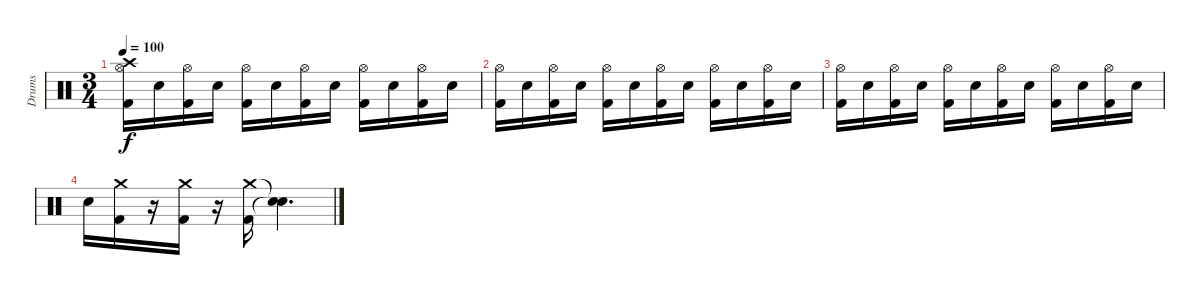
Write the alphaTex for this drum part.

\track ("Drums" "Drums") {instrument percussion}
\staff {score}
\articulation defaults
\ts (3 4)
\tempo 100
\clef neutral
\ks c
("Crash high (hit)" "Hi-Hat (open)" "Kick (hit) 2").16{dy f} "Electric Snare (hit)".16 ("Hi-Hat (open)" "Kick (hit) 2").16 "Electric Snare (hit)".16 ("Hi-Hat (open)" "Kick (hit) 2").16 "Electric Snare (hit)".16 ("Hi-Hat (open)" "Kick (hit) 2").16 "Electric Snare (hit)".16 ("Hi-Hat (open)" "Kick (hit) 2").16 "Electric Snare (hit)".16 ("Hi-Hat (open)" "Kick (hit) 2").16 "Electric Snare (hit)".16 |
("Hi-Hat (open)" "Kick (hit) 2").16 "Electric Snare (hit)".16 ("Hi-Hat (open)" "Kick (hit) 2").16 "Electric Snare (hit)".16 ("Hi-Hat (open)" "Kick (hit) 2").16 "Electric Snare (hit)".16 ("Hi-Hat (open)" "Kick (hit) 2").16 "Electric Snare (hit)".16 ("Hi-Hat (open)" "Kick (hit) 2").16 "Electric Snare (hit)".16 ("Hi-Hat (open)" "Kick (hit) 2").16 "Electric Snare (hit)".16 |
("Hi-Hat (open)" "Kick (hit) 2").16 "Electric Snare (hit)".16 ("Hi-Hat (open)" "Kick (hit) 2").16 "Electric Snare (hit)".16 ("Hi-Hat (open)" "Kick (hit) 2").16 "Electric Snare (hit)".16 ("Hi-Hat (open)" "Kick (hit) 2").16 "Electric Snare (hit)".16 ("Hi-Hat (open)" "Kick (hit) 2").16 "Electric Snare (hit)".16 ("Hi-Hat (open)" "Kick (hit) 2").16 "Electric Snare (hit)".16 |
"Electric Snare (hit)".16 ("Crash medium (hit)" "Kick (hit) 2").16 r.16 ("Crash medium (hit)" "Kick (hit) 2").16 r.16 ("Crash medium (hit)" "Kick (hit) 2").16 ("Snare (hit)"{t} "Snare (hit)"{t}).4{d}
